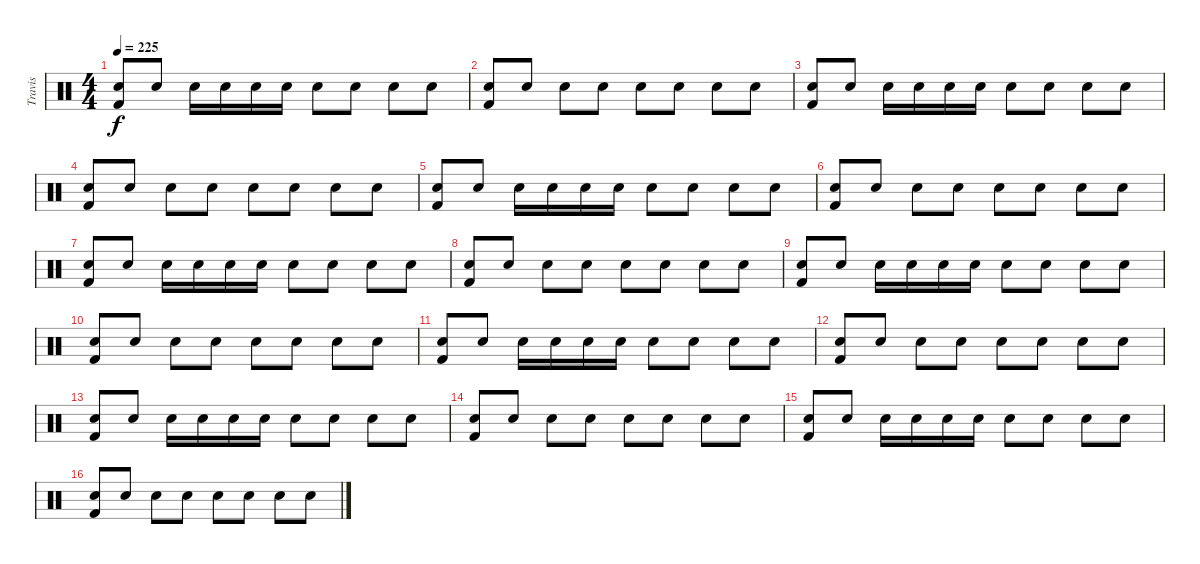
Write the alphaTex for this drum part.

\track ("Travis" "Travis") {instrument percussion}
\staff {score}
\articulation defaults
\ts (4 4)
\tempo 225
\clef neutral
\ks c
("Snare (hit) 2" "Kick (hit) 2").8{dy f} "Snare (hit) 2".8 "Snare (hit) 2".16 "Snare (hit) 2".16 "Snare (hit) 2".16 "Snare (hit) 2".16 "Electric Snare (hit)".8 "Electric Snare (hit)".8 "Snare (hit) 2".8 "Snare (hit) 2".8 |
("Snare (hit) 2" "Kick (hit) 2").8 "Snare (hit) 2".8 "Snare (hit) 2".8 "Electric Snare (hit)".8 "Snare (hit) 2".8 "Snare (hit) 2".8 "Electric Snare (hit)".8 "Snare (hit) 2".8 |
("Snare (hit) 2" "Kick (hit) 2").8 "Snare (hit) 2".8 "Snare (hit) 2".16 "Snare (hit) 2".16 "Snare (hit) 2".16 "Snare (hit) 2".16 "Electric Snare (hit)".8 "Electric Snare (hit)".8 "Snare (hit) 2".8 "Snare (hit) 2".8 |
("Snare (hit) 2" "Kick (hit) 2").8 "Snare (hit) 2".8 "Snare (hit) 2".8 "Electric Snare (hit)".8 "Snare (hit) 2".8 "Snare (hit) 2".8 "Electric Snare (hit)".8 "Snare (hit) 2".8 |
("Snare (hit) 2" "Kick (hit) 2").8 "Snare (hit) 2".8 "Snare (hit) 2".16 "Snare (hit) 2".16 "Snare (hit) 2".16 "Snare (hit) 2".16 "Electric Snare (hit)".8 "Electric Snare (hit)".8 "Snare (hit) 2".8 "Snare (hit) 2".8 |
("Snare (hit) 2" "Kick (hit) 2").8 "Snare (hit) 2".8 "Snare (hit) 2".8 "Electric Snare (hit)".8 "Snare (hit) 2".8 "Snare (hit) 2".8 "Electric Snare (hit)".8 "Snare (hit) 2".8 |
("Snare (hit) 2" "Kick (hit) 2").8 "Snare (hit) 2".8 "Snare (hit) 2".16 "Snare (hit) 2".16 "Snare (hit) 2".16 "Snare (hit) 2".16 "Electric Snare (hit)".8 "Electric Snare (hit)".8 "Snare (hit) 2".8 "Snare (hit) 2".8 |
("Snare (hit) 2" "Kick (hit) 2").8 "Snare (hit) 2".8 "Snare (hit) 2".8 "Electric Snare (hit)".8 "Snare (hit) 2".8 "Snare (hit) 2".8 "Electric Snare (hit)".8 "Snare (hit) 2".8 |
("Snare (hit) 2" "Kick (hit) 2").8 "Snare (hit) 2".8 "Snare (hit) 2".16 "Snare (hit) 2".16 "Snare (hit) 2".16 "Snare (hit) 2".16 "Electric Snare (hit)".8 "Electric Snare (hit)".8 "Snare (hit) 2".8 "Snare (hit) 2".8 |
("Snare (hit) 2" "Kick (hit) 2").8 "Snare (hit) 2".8 "Snare (hit) 2".8 "Electric Snare (hit)".8 "Snare (hit) 2".8 "Snare (hit) 2".8 "Electric Snare (hit)".8 "Snare (hit) 2".8 |
("Snare (hit) 2" "Kick (hit) 2").8 "Snare (hit) 2".8 "Snare (hit) 2".16 "Snare (hit) 2".16 "Snare (hit) 2".16 "Snare (hit) 2".16 "Electric Snare (hit)".8 "Electric Snare (hit)".8 "Snare (hit) 2".8 "Snare (hit) 2".8 |
("Snare (hit) 2" "Kick (hit) 2").8 "Snare (hit) 2".8 "Snare (hit) 2".8 "Electric Snare (hit)".8 "Snare (hit) 2".8 "Snare (hit) 2".8 "Electric Snare (hit)".8 "Snare (hit) 2".8 |
("Snare (hit) 2" "Kick (hit) 2").8 "Snare (hit) 2".8 "Snare (hit) 2".16 "Snare (hit) 2".16 "Snare (hit) 2".16 "Snare (hit) 2".16 "Electric Snare (hit)".8 "Electric Snare (hit)".8 "Snare (hit) 2".8 "Snare (hit) 2".8 |
("Snare (hit) 2" "Kick (hit) 2").8 "Snare (hit) 2".8 "Snare (hit) 2".8 "Electric Snare (hit)".8 "Snare (hit) 2".8 "Snare (hit) 2".8 "Electric Snare (hit)".8 "Snare (hit) 2".8 |
("Snare (hit) 2" "Kick (hit) 2").8 "Snare (hit) 2".8 "Snare (hit) 2".16 "Snare (hit) 2".16 "Snare (hit) 2".16 "Snare (hit) 2".16 "Electric Snare (hit)".8 "Electric Snare (hit)".8 "Snare (hit) 2".8 "Snare (hit) 2".8 |
("Snare (hit) 2" "Kick (hit) 2").8 "Snare (hit) 2".8 "Snare (hit) 2".8 "Electric Snare (hit)".8 "Snare (hit) 2".8 "Snare (hit) 2".8 "Electric Snare (hit)".8 "Snare (hit) 2".8
